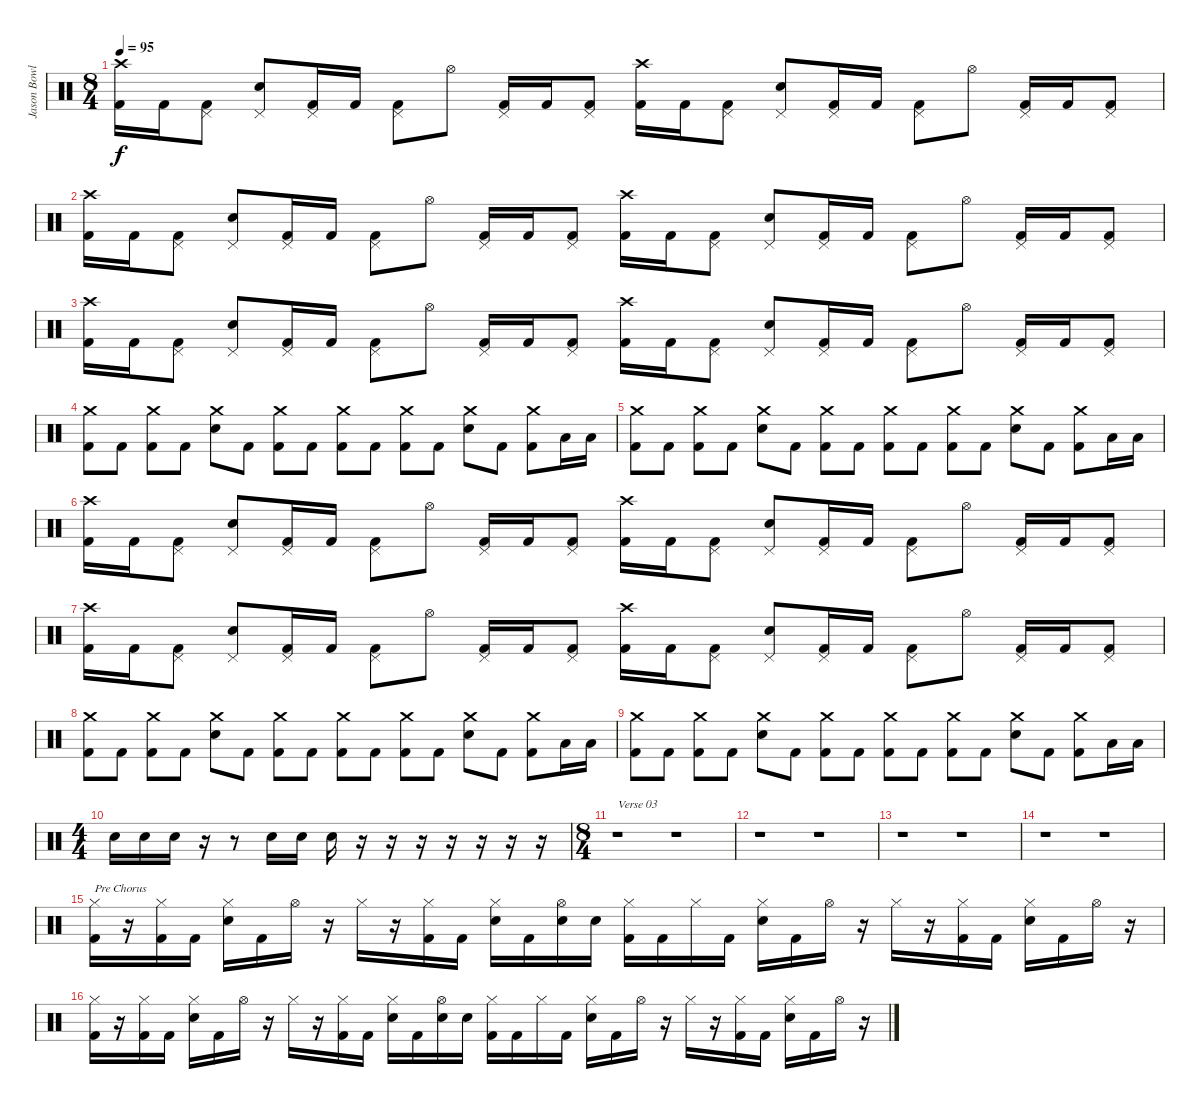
\track ("Jason Bowld" "Jason Bowl") {instrument percussion}
\staff {score}
\articulation defaults
\ts (8 4)
\tempo 95
\clef neutral
\ks c
("Kick (hit) 2" "Crash high (hit)").16{dy f} "Kick (hit) 2".16 ("Kick (hit) 2" "Pedal Hi-Hat (hit)").8 ("Snare (hit) 2" "Pedal Hi-Hat (hit)").8 ("Kick (hit) 2" "Pedal Hi-Hat (hit)").16 "Kick (hit) 2".16 ("Kick (hit) 2" "Pedal Hi-Hat (hit)").8 "Hi-Hat (open)".8 ("Kick (hit) 2" "Pedal Hi-Hat (hit)").16 "Kick (hit) 2".16 ("Kick (hit) 2" "Pedal Hi-Hat (hit)").8 ("Kick (hit) 2" "Crash high (hit)").16 "Kick (hit) 2".16 ("Kick (hit) 2" "Pedal Hi-Hat (hit)").8 ("Snare (hit) 2" "Pedal Hi-Hat (hit)").8 ("Kick (hit) 2" "Pedal Hi-Hat (hit)").16 "Kick (hit) 2".16 ("Kick (hit) 2" "Pedal Hi-Hat (hit)").8 "Hi-Hat (open)".8 ("Kick (hit) 2" "Pedal Hi-Hat (hit)").16 "Kick (hit) 2".16 ("Kick (hit) 2" "Pedal Hi-Hat (hit)").8 |
("Kick (hit) 2" "Crash high (hit)").16 "Kick (hit) 2".16 ("Kick (hit) 2" "Pedal Hi-Hat (hit)").8 ("Snare (hit) 2" "Pedal Hi-Hat (hit)").8 ("Kick (hit) 2" "Pedal Hi-Hat (hit)").16 "Kick (hit) 2".16 ("Kick (hit) 2" "Pedal Hi-Hat (hit)").8 "Hi-Hat (open)".8 ("Kick (hit) 2" "Pedal Hi-Hat (hit)").16 "Kick (hit) 2".16 ("Kick (hit) 2" "Pedal Hi-Hat (hit)").8 ("Kick (hit) 2" "Crash high (hit)").16 "Kick (hit) 2".16 ("Kick (hit) 2" "Pedal Hi-Hat (hit)").8 ("Snare (hit) 2" "Pedal Hi-Hat (hit)").8 ("Kick (hit) 2" "Pedal Hi-Hat (hit)").16 "Kick (hit) 2".16 ("Kick (hit) 2" "Pedal Hi-Hat (hit)").8 "Hi-Hat (open)".8 ("Kick (hit) 2" "Pedal Hi-Hat (hit)").16 "Kick (hit) 2".16 ("Kick (hit) 2" "Pedal Hi-Hat (hit)").8 |
("Kick (hit) 2" "Crash high (hit)").16 "Kick (hit) 2".16 ("Kick (hit) 2" "Pedal Hi-Hat (hit)").8 ("Snare (hit) 2" "Pedal Hi-Hat (hit)").8 ("Kick (hit) 2" "Pedal Hi-Hat (hit)").16 "Kick (hit) 2".16 ("Kick (hit) 2" "Pedal Hi-Hat (hit)").8 "Hi-Hat (open)".8 ("Kick (hit) 2" "Pedal Hi-Hat (hit)").16 "Kick (hit) 2".16 ("Kick (hit) 2" "Pedal Hi-Hat (hit)").8 ("Kick (hit) 2" "Crash high (hit)").16 "Kick (hit) 2".16 ("Kick (hit) 2" "Pedal Hi-Hat (hit)").8 ("Snare (hit) 2" "Pedal Hi-Hat (hit)").8 ("Kick (hit) 2" "Pedal Hi-Hat (hit)").16 "Kick (hit) 2".16 ("Kick (hit) 2" "Pedal Hi-Hat (hit)").8 "Hi-Hat (open)".8 ("Kick (hit) 2" "Pedal Hi-Hat (hit)").16 "Kick (hit) 2".16 ("Kick (hit) 2" "Pedal Hi-Hat (hit)").8 |
("Kick (hit) 2" "Crash medium (hit)").8 "Kick (hit) 2".8 ("Kick (hit) 2" "Crash medium (hit)").8 "Kick (hit) 2".8 ("Snare (hit) 2" "Crash medium (hit)").8 "Kick (hit) 2".8 ("Kick (hit) 2" "Crash medium (hit)").8 "Kick (hit) 2".8 ("Kick (hit) 2" "Crash medium (hit)").8 "Kick (hit) 2".8 ("Kick (hit) 2" "Crash medium (hit)").8 "Kick (hit) 2".8 ("Snare (hit) 2" "Crash medium (hit)").8 "Kick (hit) 2".8 ("Kick (hit) 2" "Crash medium (hit)").8 "Low Tom (hit)".16 "Low Tom (hit)".16 |
("Kick (hit) 2" "Crash medium (hit)").8 "Kick (hit) 2".8 ("Kick (hit) 2" "Crash medium (hit)").8 "Kick (hit) 2".8 ("Snare (hit) 2" "Crash medium (hit)").8 "Kick (hit) 2".8 ("Kick (hit) 2" "Crash medium (hit)").8 "Kick (hit) 2".8 ("Kick (hit) 2" "Crash medium (hit)").8 "Kick (hit) 2".8 ("Kick (hit) 2" "Crash medium (hit)").8 "Kick (hit) 2".8 ("Snare (hit) 2" "Crash medium (hit)").8 "Kick (hit) 2".8 ("Kick (hit) 2" "Crash medium (hit)").8 "Low Tom (hit)".16 "Low Tom (hit)".16 |
("Kick (hit) 2" "Crash high (hit)").16 "Kick (hit) 2".16 ("Kick (hit) 2" "Pedal Hi-Hat (hit)").8 ("Snare (hit) 2" "Pedal Hi-Hat (hit)").8 ("Kick (hit) 2" "Pedal Hi-Hat (hit)").16 "Kick (hit) 2".16 ("Kick (hit) 2" "Pedal Hi-Hat (hit)").8 "Hi-Hat (open)".8 ("Kick (hit) 2" "Pedal Hi-Hat (hit)").16 "Kick (hit) 2".16 ("Kick (hit) 2" "Pedal Hi-Hat (hit)").8 ("Kick (hit) 2" "Crash high (hit)").16 "Kick (hit) 2".16 ("Kick (hit) 2" "Pedal Hi-Hat (hit)").8 ("Snare (hit) 2" "Pedal Hi-Hat (hit)").8 ("Kick (hit) 2" "Pedal Hi-Hat (hit)").16 "Kick (hit) 2".16 ("Kick (hit) 2" "Pedal Hi-Hat (hit)").8 "Hi-Hat (open)".8 ("Kick (hit) 2" "Pedal Hi-Hat (hit)").16 "Kick (hit) 2".16 ("Kick (hit) 2" "Pedal Hi-Hat (hit)").8 |
("Kick (hit) 2" "Crash high (hit)").16 "Kick (hit) 2".16 ("Kick (hit) 2" "Pedal Hi-Hat (hit)").8 ("Snare (hit) 2" "Pedal Hi-Hat (hit)").8 ("Kick (hit) 2" "Pedal Hi-Hat (hit)").16 "Kick (hit) 2".16 ("Kick (hit) 2" "Pedal Hi-Hat (hit)").8 "Hi-Hat (open)".8 ("Kick (hit) 2" "Pedal Hi-Hat (hit)").16 "Kick (hit) 2".16 ("Kick (hit) 2" "Pedal Hi-Hat (hit)").8 ("Kick (hit) 2" "Crash high (hit)").16 "Kick (hit) 2".16 ("Kick (hit) 2" "Pedal Hi-Hat (hit)").8 ("Snare (hit) 2" "Pedal Hi-Hat (hit)").8 ("Kick (hit) 2" "Pedal Hi-Hat (hit)").16 "Kick (hit) 2".16 ("Kick (hit) 2" "Pedal Hi-Hat (hit)").8 "Hi-Hat (open)".8 ("Kick (hit) 2" "Pedal Hi-Hat (hit)").16 "Kick (hit) 2".16 ("Kick (hit) 2" "Pedal Hi-Hat (hit)").8 |
("Kick (hit) 2" "Crash medium (hit)").8 "Kick (hit) 2".8 ("Kick (hit) 2" "Crash medium (hit)").8 "Kick (hit) 2".8 ("Snare (hit) 2" "Crash medium (hit)").8 "Kick (hit) 2".8 ("Kick (hit) 2" "Crash medium (hit)").8 "Kick (hit) 2".8 ("Kick (hit) 2" "Crash medium (hit)").8 "Kick (hit) 2".8 ("Kick (hit) 2" "Crash medium (hit)").8 "Kick (hit) 2".8 ("Snare (hit) 2" "Crash medium (hit)").8 "Kick (hit) 2".8 ("Kick (hit) 2" "Crash medium (hit)").8 "Low Tom (hit)".16 "Low Tom (hit)".16 |
("Kick (hit) 2" "Crash medium (hit)").8 "Kick (hit) 2".8 ("Kick (hit) 2" "Crash medium (hit)").8 "Kick (hit) 2".8 ("Snare (hit) 2" "Crash medium (hit)").8 "Kick (hit) 2".8 ("Kick (hit) 2" "Crash medium (hit)").8 "Kick (hit) 2".8 ("Kick (hit) 2" "Crash medium (hit)").8 "Kick (hit) 2".8 ("Kick (hit) 2" "Crash medium (hit)").8 "Kick (hit) 2".8 ("Snare (hit) 2" "Crash medium (hit)").8 "Kick (hit) 2".8 ("Kick (hit) 2" "Crash medium (hit)").8 "Low Tom (hit)".16 "Low Tom (hit)".16 |
\ts (4 4)
"Snare (hit) 2".16 "Snare (hit) 2".16 "Snare (hit) 2".16 r.16 r.8 "Snare (hit) 2".16 "Snare (hit) 2".16 "Snare (hit) 2".16 r.16 r.16 r.16 r.16 r.16 r.16 r.16 |
\ts (8 4)
r.1{txt "Verse 03"} r.1 |
r.1 r.1 |
r.1 r.1 |
r.1 r.1 |
("Hi-Hat (closed)" "Kick (hit) 2").16{txt "Pre Chorus"} r.16 ("Hi-Hat (closed)" "Kick (hit) 2").16 "Kick (hit) 2".16 ("Hi-Hat (closed)" "Snare (hit) 2").16 "Kick (hit) 2".16 "Hi-Hat (open)".16 r.16 "Hi-Hat (closed)".16 r.16 ("Hi-Hat (closed)" "Kick (hit) 2").16 "Kick (hit) 2".16 ("Hi-Hat (closed)" "Snare (hit) 2").16 "Kick (hit) 2".16 ("Hi-Hat (open)" "Snare (hit) 2").16 "Snare (hit) 2".16 ("Hi-Hat (closed)" "Kick (hit) 2").16 "Kick (hit) 2".16 "Hi-Hat (closed)".16 "Kick (hit) 2".16 ("Hi-Hat (closed)" "Snare (hit) 2").16 "Kick (hit) 2".16 "Hi-Hat (open)".16 r.16 "Hi-Hat (closed)".16 r.16 ("Hi-Hat (closed)" "Kick (hit) 2").16 "Kick (hit) 2".16 ("Hi-Hat (closed)" "Snare (hit) 2").16 "Kick (hit) 2".16 "Hi-Hat (open)".16 r.16 |
("Hi-Hat (closed)" "Kick (hit) 2").16 r.16 ("Hi-Hat (closed)" "Kick (hit) 2").16 "Kick (hit) 2".16 ("Hi-Hat (closed)" "Snare (hit) 2").16 "Kick (hit) 2".16 "Hi-Hat (open)".16 r.16 "Hi-Hat (closed)".16 r.16 ("Hi-Hat (closed)" "Kick (hit) 2").16 "Kick (hit) 2".16 ("Hi-Hat (closed)" "Snare (hit) 2").16 "Kick (hit) 2".16 ("Hi-Hat (open)" "Snare (hit) 2").16 "Snare (hit) 2".16 ("Hi-Hat (closed)" "Kick (hit) 2").16 "Kick (hit) 2".16 "Hi-Hat (closed)".16 "Kick (hit) 2".16 ("Hi-Hat (closed)" "Snare (hit) 2").16 "Kick (hit) 2".16 "Hi-Hat (open)".16 r.16 "Hi-Hat (closed)".16 r.16 ("Hi-Hat (closed)" "Kick (hit) 2").16 "Kick (hit) 2".16 ("Hi-Hat (closed)" "Snare (hit) 2").16 "Kick (hit) 2".16 "Hi-Hat (open)".16 r.16
